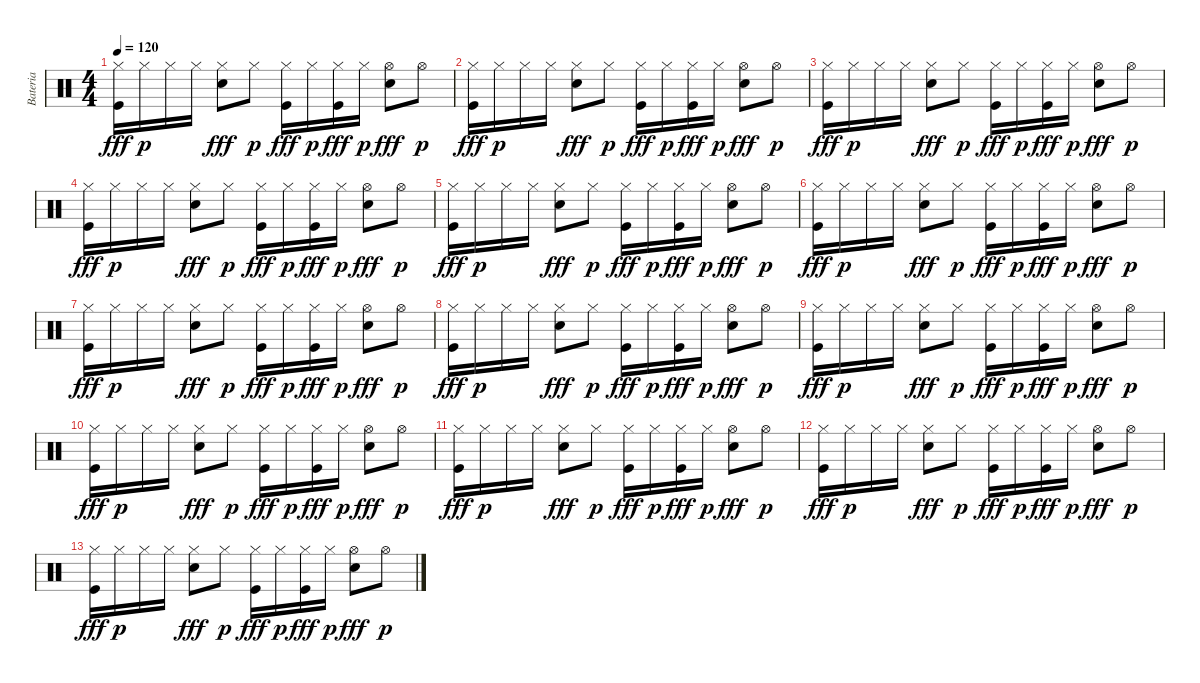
\track ("Bateria" "Bateria") {instrument percussion}
\staff {score}
\articulation defaults
\ts (4 4)
\tempo 120
\clef neutral
\ks c
("Hi-Hat (closed)" "Kick (hit)").16{dy fff} "Hi-Hat (closed)".16{dy p} "Hi-Hat (closed)".16 "Hi-Hat (closed)".16 ("Hi-Hat (closed)" "Snare (hit) 2").8{dy fff} "Hi-Hat (closed)".8{dy p} ("Hi-Hat (closed)" "Kick (hit)").16{dy fff} "Hi-Hat (closed)".16{dy p} ("Hi-Hat (closed)" "Kick (hit)").16{dy fff} "Hi-Hat (closed)".16{dy p} ("Hi-Hat (open)" "Snare (hit) 2").8{dy fff} "Hi-Hat (open)".8{dy p} |
("Hi-Hat (closed)" "Kick (hit)").16{dy fff} "Hi-Hat (closed)".16{dy p} "Hi-Hat (closed)".16 "Hi-Hat (closed)".16 ("Hi-Hat (closed)" "Snare (hit) 2").8{dy fff} "Hi-Hat (closed)".8{dy p} ("Hi-Hat (closed)" "Kick (hit)").16{dy fff} "Hi-Hat (closed)".16{dy p} ("Hi-Hat (closed)" "Kick (hit)").16{dy fff} "Hi-Hat (closed)".16{dy p} ("Hi-Hat (open)" "Snare (hit) 2").8{dy fff} "Hi-Hat (open)".8{dy p} |
("Hi-Hat (closed)" "Kick (hit)").16{dy fff} "Hi-Hat (closed)".16{dy p} "Hi-Hat (closed)".16 "Hi-Hat (closed)".16 ("Hi-Hat (closed)" "Snare (hit) 2").8{dy fff} "Hi-Hat (closed)".8{dy p} ("Hi-Hat (closed)" "Kick (hit)").16{dy fff} "Hi-Hat (closed)".16{dy p} ("Hi-Hat (closed)" "Kick (hit)").16{dy fff} "Hi-Hat (closed)".16{dy p} ("Hi-Hat (open)" "Snare (hit) 2").8{dy fff} "Hi-Hat (open)".8{dy p} |
("Hi-Hat (closed)" "Kick (hit)").16{dy fff} "Hi-Hat (closed)".16{dy p} "Hi-Hat (closed)".16 "Hi-Hat (closed)".16 ("Hi-Hat (closed)" "Snare (hit) 2").8{dy fff} "Hi-Hat (closed)".8{dy p} ("Hi-Hat (closed)" "Kick (hit)").16{dy fff} "Hi-Hat (closed)".16{dy p} ("Hi-Hat (closed)" "Kick (hit)").16{dy fff} "Hi-Hat (closed)".16{dy p} ("Hi-Hat (open)" "Snare (hit) 2").8{dy fff} "Hi-Hat (open)".8{dy p} |
("Hi-Hat (closed)" "Kick (hit)").16{dy fff} "Hi-Hat (closed)".16{dy p} "Hi-Hat (closed)".16 "Hi-Hat (closed)".16 ("Hi-Hat (closed)" "Snare (hit) 2").8{dy fff} "Hi-Hat (closed)".8{dy p} ("Hi-Hat (closed)" "Kick (hit)").16{dy fff} "Hi-Hat (closed)".16{dy p} ("Hi-Hat (closed)" "Kick (hit)").16{dy fff} "Hi-Hat (closed)".16{dy p} ("Hi-Hat (open)" "Snare (hit) 2").8{dy fff} "Hi-Hat (open)".8{dy p} |
("Hi-Hat (closed)" "Kick (hit)").16{dy fff} "Hi-Hat (closed)".16{dy p} "Hi-Hat (closed)".16 "Hi-Hat (closed)".16 ("Hi-Hat (closed)" "Snare (hit) 2").8{dy fff} "Hi-Hat (closed)".8{dy p} ("Hi-Hat (closed)" "Kick (hit)").16{dy fff} "Hi-Hat (closed)".16{dy p} ("Hi-Hat (closed)" "Kick (hit)").16{dy fff} "Hi-Hat (closed)".16{dy p} ("Hi-Hat (open)" "Snare (hit) 2").8{dy fff} "Hi-Hat (open)".8{dy p} |
("Hi-Hat (closed)" "Kick (hit)").16{dy fff} "Hi-Hat (closed)".16{dy p} "Hi-Hat (closed)".16 "Hi-Hat (closed)".16 ("Hi-Hat (closed)" "Snare (hit) 2").8{dy fff} "Hi-Hat (closed)".8{dy p} ("Hi-Hat (closed)" "Kick (hit)").16{dy fff} "Hi-Hat (closed)".16{dy p} ("Hi-Hat (closed)" "Kick (hit)").16{dy fff} "Hi-Hat (closed)".16{dy p} ("Hi-Hat (open)" "Snare (hit) 2").8{dy fff} "Hi-Hat (open)".8{dy p} |
("Hi-Hat (closed)" "Kick (hit)").16{dy fff} "Hi-Hat (closed)".16{dy p} "Hi-Hat (closed)".16 "Hi-Hat (closed)".16 ("Hi-Hat (closed)" "Snare (hit) 2").8{dy fff} "Hi-Hat (closed)".8{dy p} ("Hi-Hat (closed)" "Kick (hit)").16{dy fff} "Hi-Hat (closed)".16{dy p} ("Hi-Hat (closed)" "Kick (hit)").16{dy fff} "Hi-Hat (closed)".16{dy p} ("Hi-Hat (open)" "Snare (hit) 2").8{dy fff} "Hi-Hat (open)".8{dy p} |
("Hi-Hat (closed)" "Kick (hit)").16{dy fff} "Hi-Hat (closed)".16{dy p} "Hi-Hat (closed)".16 "Hi-Hat (closed)".16 ("Hi-Hat (closed)" "Snare (hit) 2").8{dy fff} "Hi-Hat (closed)".8{dy p} ("Hi-Hat (closed)" "Kick (hit)").16{dy fff} "Hi-Hat (closed)".16{dy p} ("Hi-Hat (closed)" "Kick (hit)").16{dy fff} "Hi-Hat (closed)".16{dy p} ("Hi-Hat (open)" "Snare (hit) 2").8{dy fff} "Hi-Hat (open)".8{dy p} |
("Hi-Hat (closed)" "Kick (hit)").16{dy fff} "Hi-Hat (closed)".16{dy p} "Hi-Hat (closed)".16 "Hi-Hat (closed)".16 ("Hi-Hat (closed)" "Snare (hit) 2").8{dy fff} "Hi-Hat (closed)".8{dy p} ("Hi-Hat (closed)" "Kick (hit)").16{dy fff} "Hi-Hat (closed)".16{dy p} ("Hi-Hat (closed)" "Kick (hit)").16{dy fff} "Hi-Hat (closed)".16{dy p} ("Hi-Hat (open)" "Snare (hit) 2").8{dy fff} "Hi-Hat (open)".8{dy p} |
("Hi-Hat (closed)" "Kick (hit)").16{dy fff} "Hi-Hat (closed)".16{dy p} "Hi-Hat (closed)".16 "Hi-Hat (closed)".16 ("Hi-Hat (closed)" "Snare (hit) 2").8{dy fff} "Hi-Hat (closed)".8{dy p} ("Hi-Hat (closed)" "Kick (hit)").16{dy fff} "Hi-Hat (closed)".16{dy p} ("Hi-Hat (closed)" "Kick (hit)").16{dy fff} "Hi-Hat (closed)".16{dy p} ("Hi-Hat (open)" "Snare (hit) 2").8{dy fff} "Hi-Hat (open)".8{dy p} |
("Hi-Hat (closed)" "Kick (hit)").16{dy fff} "Hi-Hat (closed)".16{dy p} "Hi-Hat (closed)".16 "Hi-Hat (closed)".16 ("Hi-Hat (closed)" "Snare (hit) 2").8{dy fff} "Hi-Hat (closed)".8{dy p} ("Hi-Hat (closed)" "Kick (hit)").16{dy fff} "Hi-Hat (closed)".16{dy p} ("Hi-Hat (closed)" "Kick (hit)").16{dy fff} "Hi-Hat (closed)".16{dy p} ("Hi-Hat (open)" "Snare (hit) 2").8{dy fff} "Hi-Hat (open)".8{dy p} |
("Hi-Hat (closed)" "Kick (hit)").16{dy fff} "Hi-Hat (closed)".16{dy p} "Hi-Hat (closed)".16 "Hi-Hat (closed)".16 ("Hi-Hat (closed)" "Snare (hit) 2").8{dy fff} "Hi-Hat (closed)".8{dy p} ("Hi-Hat (closed)" "Kick (hit)").16{dy fff} "Hi-Hat (closed)".16{dy p} ("Hi-Hat (closed)" "Kick (hit)").16{dy fff} "Hi-Hat (closed)".16{dy p} ("Hi-Hat (open)" "Snare (hit) 2").8{dy fff} "Hi-Hat (open)".8{dy p}
